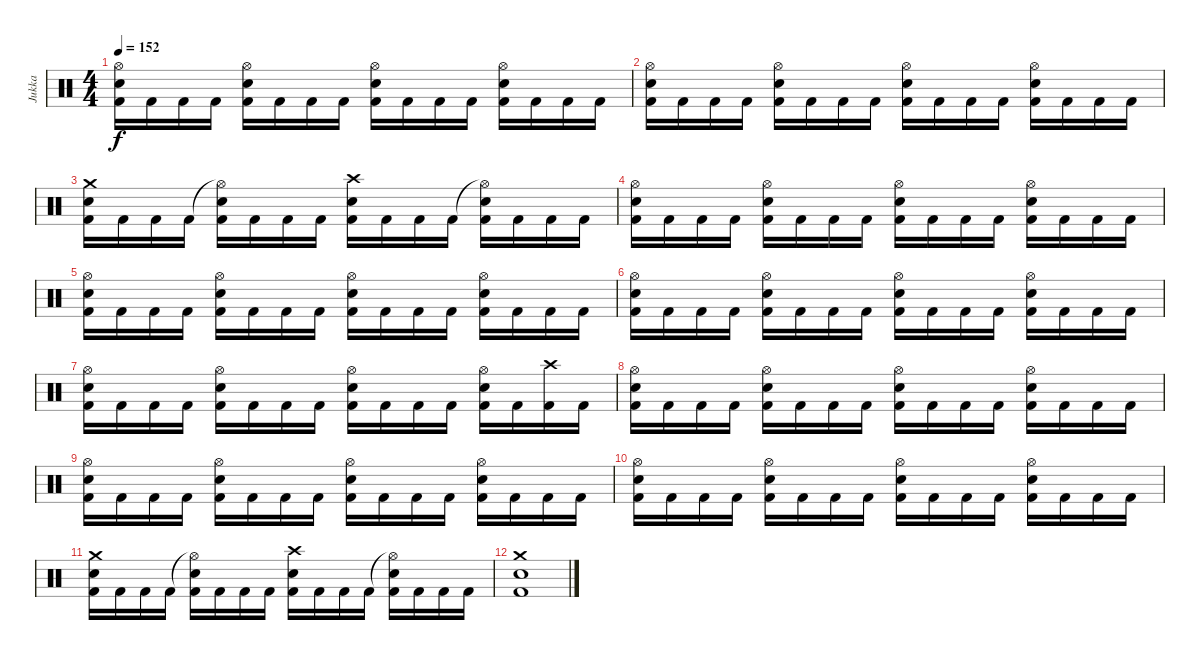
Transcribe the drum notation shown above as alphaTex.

\track ("Jukka" "Jukka") {instrument percussion}
\staff {score}
\articulation defaults
\ts (4 4)
\tempo 152
\clef neutral
\ks c
("Hi-Hat (open)" "Electric Snare (hit)" "Kick (hit) 2").16{dy f} "Kick (hit) 2".16 "Kick (hit) 2".16 "Kick (hit) 2".16 ("Hi-Hat (open)" "Electric Snare (hit)" "Kick (hit) 2").16 "Kick (hit) 2".16 "Kick (hit) 2".16 "Kick (hit) 2".16 ("Hi-Hat (open)" "Electric Snare (hit)" "Kick (hit) 2").16 "Kick (hit) 2".16 "Kick (hit) 2".16 "Kick (hit) 2".16 ("Hi-Hat (open)" "Electric Snare (hit)" "Kick (hit) 2").16 "Kick (hit) 2".16 "Kick (hit) 2".16 "Kick (hit) 2".16 |
("Hi-Hat (open)" "Electric Snare (hit)" "Kick (hit) 2").16 "Kick (hit) 2".16 "Kick (hit) 2".16 "Kick (hit) 2".16 ("Hi-Hat (open)" "Electric Snare (hit)" "Kick (hit) 2").16 "Kick (hit) 2".16 "Kick (hit) 2".16 "Kick (hit) 2".16 ("Hi-Hat (open)" "Electric Snare (hit)" "Kick (hit) 2").16 "Kick (hit) 2".16 "Kick (hit) 2".16 "Kick (hit) 2".16 ("Hi-Hat (open)" "Electric Snare (hit)" "Kick (hit) 2").16 "Kick (hit) 2".16 "Kick (hit) 2".16 "Kick (hit) 2".16 |
("Crash medium (hit)" "Electric Snare (hit)" "Kick (hit) 2").16 "Kick (hit) 2".16 "Kick (hit) 2".16 "Kick (hit) 2".16 ("Hi-Hat (open)"{t} "Electric Snare (hit)" "Kick (hit) 2").16 "Kick (hit) 2".16 "Kick (hit) 2".16 "Kick (hit) 2".16 ("Crash high (hit)" "Electric Snare (hit)" "Kick (hit) 2").16 "Kick (hit) 2".16 "Kick (hit) 2".16 "Kick (hit) 2".16 ("Hi-Hat (open)"{t} "Electric Snare (hit)" "Kick (hit) 2").16 "Kick (hit) 2".16 "Kick (hit) 2".16 "Kick (hit) 2".16 |
("Hi-Hat (open)" "Electric Snare (hit)" "Kick (hit) 2").16 "Kick (hit) 2".16 "Kick (hit) 2".16 "Kick (hit) 2".16 ("Hi-Hat (open)" "Electric Snare (hit)" "Kick (hit) 2").16 "Kick (hit) 2".16 "Kick (hit) 2".16 "Kick (hit) 2".16 ("Hi-Hat (open)" "Electric Snare (hit)" "Kick (hit) 2").16 "Kick (hit) 2".16 "Kick (hit) 2".16 "Kick (hit) 2".16 ("Hi-Hat (open)" "Electric Snare (hit)" "Kick (hit) 2").16 "Kick (hit) 2".16 "Kick (hit) 2".16 "Kick (hit) 2".16 |
("Hi-Hat (open)" "Electric Snare (hit)" "Kick (hit) 2").16 "Kick (hit) 2".16 "Kick (hit) 2".16 "Kick (hit) 2".16 ("Hi-Hat (open)" "Electric Snare (hit)" "Kick (hit) 2").16 "Kick (hit) 2".16 "Kick (hit) 2".16 "Kick (hit) 2".16 ("Hi-Hat (open)" "Electric Snare (hit)" "Kick (hit) 2").16 "Kick (hit) 2".16 "Kick (hit) 2".16 "Kick (hit) 2".16 ("Hi-Hat (open)" "Electric Snare (hit)" "Kick (hit) 2").16 "Kick (hit) 2".16 "Kick (hit) 2".16 "Kick (hit) 2".16 |
("Hi-Hat (open)" "Electric Snare (hit)" "Kick (hit) 2").16 "Kick (hit) 2".16 "Kick (hit) 2".16 "Kick (hit) 2".16 ("Hi-Hat (open)" "Electric Snare (hit)" "Kick (hit) 2").16 "Kick (hit) 2".16 "Kick (hit) 2".16 "Kick (hit) 2".16 ("Hi-Hat (open)" "Electric Snare (hit)" "Kick (hit) 2").16 "Kick (hit) 2".16 "Kick (hit) 2".16 "Kick (hit) 2".16 ("Hi-Hat (open)" "Electric Snare (hit)" "Kick (hit) 2").16 "Kick (hit) 2".16 "Kick (hit) 2".16 "Kick (hit) 2".16 |
("Hi-Hat (open)" "Electric Snare (hit)" "Kick (hit) 2").16 "Kick (hit) 2".16 "Kick (hit) 2".16 "Kick (hit) 2".16 ("Hi-Hat (open)" "Electric Snare (hit)" "Kick (hit) 2").16 "Kick (hit) 2".16 "Kick (hit) 2".16 "Kick (hit) 2".16 ("Hi-Hat (open)" "Electric Snare (hit)" "Kick (hit) 2").16 "Kick (hit) 2".16 "Kick (hit) 2".16 "Kick (hit) 2".16 ("Hi-Hat (open)" "Electric Snare (hit)" "Kick (hit) 2").16 "Kick (hit) 2".16 ("Crash high (hit)" "Kick (hit) 2").16 "Kick (hit) 2".16 |
("Hi-Hat (open)" "Electric Snare (hit)" "Kick (hit) 2").16 "Kick (hit) 2".16 "Kick (hit) 2".16 "Kick (hit) 2".16 ("Hi-Hat (open)" "Electric Snare (hit)" "Kick (hit) 2").16 "Kick (hit) 2".16 "Kick (hit) 2".16 "Kick (hit) 2".16 ("Hi-Hat (open)" "Electric Snare (hit)" "Kick (hit) 2").16 "Kick (hit) 2".16 "Kick (hit) 2".16 "Kick (hit) 2".16 ("Hi-Hat (open)" "Electric Snare (hit)" "Kick (hit) 2").16 "Kick (hit) 2".16 "Kick (hit) 2".16 "Kick (hit) 2".16 |
("Hi-Hat (open)" "Electric Snare (hit)" "Kick (hit) 2").16 "Kick (hit) 2".16 "Kick (hit) 2".16 "Kick (hit) 2".16 ("Hi-Hat (open)" "Electric Snare (hit)" "Kick (hit) 2").16 "Kick (hit) 2".16 "Kick (hit) 2".16 "Kick (hit) 2".16 ("Hi-Hat (open)" "Electric Snare (hit)" "Kick (hit) 2").16 "Kick (hit) 2".16 "Kick (hit) 2".16 "Kick (hit) 2".16 ("Hi-Hat (open)" "Electric Snare (hit)" "Kick (hit) 2").16 "Kick (hit) 2".16 "Kick (hit) 2".16 "Kick (hit) 2".16 |
("Hi-Hat (open)" "Electric Snare (hit)" "Kick (hit) 2").16 "Kick (hit) 2".16 "Kick (hit) 2".16 "Kick (hit) 2".16 ("Hi-Hat (open)" "Electric Snare (hit)" "Kick (hit) 2").16 "Kick (hit) 2".16 "Kick (hit) 2".16 "Kick (hit) 2".16 ("Hi-Hat (open)" "Electric Snare (hit)" "Kick (hit) 2").16 "Kick (hit) 2".16 "Kick (hit) 2".16 "Kick (hit) 2".16 ("Hi-Hat (open)" "Electric Snare (hit)" "Kick (hit) 2").16 "Kick (hit) 2".16 "Kick (hit) 2".16 "Kick (hit) 2".16 |
("Crash medium (hit)" "Electric Snare (hit)" "Kick (hit) 2").16 "Kick (hit) 2".16 "Kick (hit) 2".16 "Kick (hit) 2".16 ("Hi-Hat (open)"{t} "Electric Snare (hit)" "Kick (hit) 2").16 "Kick (hit) 2".16 "Kick (hit) 2".16 "Kick (hit) 2".16 ("Crash high (hit)" "Electric Snare (hit)" "Kick (hit) 2").16 "Kick (hit) 2".16 "Kick (hit) 2".16 "Kick (hit) 2".16 ("Hi-Hat (open)"{t} "Electric Snare (hit)" "Kick (hit) 2").16 "Kick (hit) 2".16 "Kick (hit) 2".16 "Kick (hit) 2".16 |
("Crash medium (hit)" "Electric Snare (hit)" "Kick (hit) 2").1
